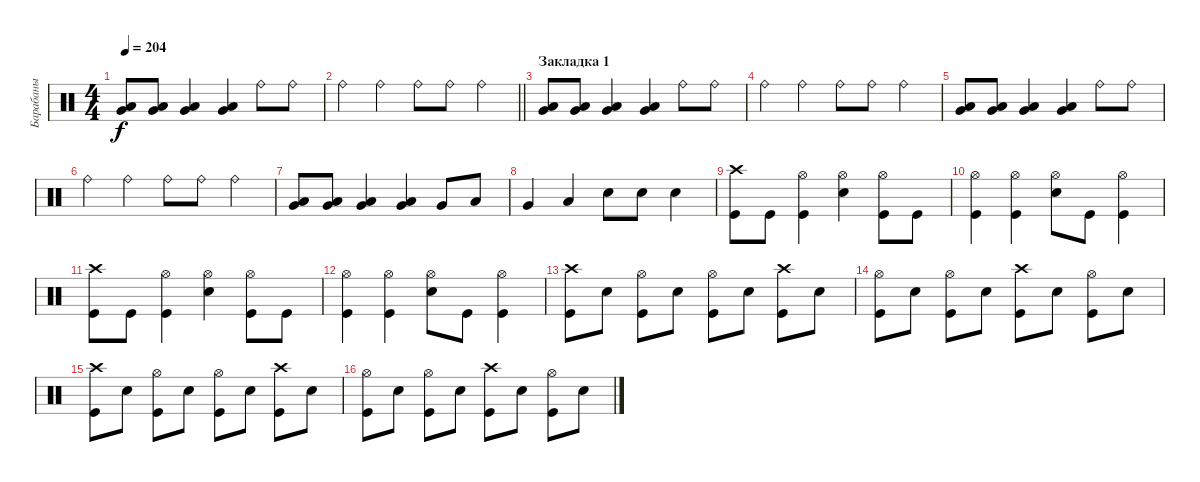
\track ("Барабаны" "Барабаны") {instrument percussion}
\staff {score}
\articulation defaults
\ts (4 4)
\tempo 204
\clef neutral
\ks c
("Very Low Tom (hit)" "Low Floor Tom (hit)").8{dy f} ("Very Low Tom (hit)" "Low Floor Tom (hit)").8 ("Low Floor Tom (hit)" "Very Low Tom (hit)").4 ("Low Floor Tom (hit)" "Very Low Tom (hit)").4 "Ride (bell)".8 "Ride (bell)".8 |
\barLineRight lightlight "Ride (bell)".4 "Ride (bell)".4 "Ride (bell)".8 "Ride (bell)".8 "Ride (bell)".4
|
\section ("" "Закладка 1")
("Very Low Tom (hit)" "Low Floor Tom (hit)").8 ("Very Low Tom (hit)" "Low Floor Tom (hit)").8 ("Low Floor Tom (hit)" "Very Low Tom (hit)").4 ("Low Floor Tom (hit)" "Very Low Tom (hit)").4 "Ride (bell)".8 "Ride (bell)".8 |
"Ride (bell)".4 "Ride (bell)".4 "Ride (bell)".8 "Ride (bell)".8 "Ride (bell)".4 |
("Very Low Tom (hit)" "Low Floor Tom (hit)").8 ("Very Low Tom (hit)" "Low Floor Tom (hit)").8 ("Low Floor Tom (hit)" "Very Low Tom (hit)").4 ("Low Floor Tom (hit)" "Very Low Tom (hit)").4 "Ride (bell)".8 "Ride (bell)".8 |
"Ride (bell)".4 "Ride (bell)".4 "Ride (bell)".8 "Ride (bell)".8 "Ride (bell)".4 |
("Very Low Tom (hit)" "Low Floor Tom (hit)").8 ("Very Low Tom (hit)" "Low Floor Tom (hit)").8 ("Low Floor Tom (hit)" "Very Low Tom (hit)").4 ("Low Floor Tom (hit)" "Very Low Tom (hit)").4 "Very Low Tom (hit)".8 "Low Floor Tom (hit)".8 |
"Very Low Tom (hit)".4 "Low Floor Tom (hit)".4 "Electric Snare (hit)".8 "Electric Snare (hit)".8 "Electric Snare (hit)".4 |
("Crash high (hit)" "Kick (hit)").8 "Kick (hit)".8 ("Hi-Hat (open)" "Kick (hit)").4 ("Hi-Hat (open)" "Electric Snare (hit)").4 ("Hi-Hat (open)" "Kick (hit)").8 "Kick (hit)".8 |
("Hi-Hat (open)" "Kick (hit)").4 ("Hi-Hat (open)" "Kick (hit)").4 ("Hi-Hat (open)" "Electric Snare (hit)").8 "Kick (hit)".8 ("Hi-Hat (open)" "Kick (hit)").4 |
("Crash high (hit)" "Kick (hit)").8 "Kick (hit)".8 ("Hi-Hat (open)" "Kick (hit)").4 ("Hi-Hat (open)" "Electric Snare (hit)").4 ("Hi-Hat (open)" "Kick (hit)").8 "Kick (hit)".8 |
("Hi-Hat (open)" "Kick (hit)").4 ("Hi-Hat (open)" "Kick (hit)").4 ("Hi-Hat (open)" "Electric Snare (hit)").8 "Kick (hit)".8 ("Hi-Hat (open)" "Kick (hit)").4 |
("Crash high (hit)" "Kick (hit)").8 "Electric Snare (hit)".8 ("Hi-Hat (open)" "Kick (hit)").8 "Electric Snare (hit)".8 ("Hi-Hat (open)" "Kick (hit)").8 "Electric Snare (hit)".8 ("Crash high (hit)" "Kick (hit)").8 "Electric Snare (hit)".8 |
("Hi-Hat (open)" "Kick (hit)").8 "Electric Snare (hit)".8 ("Hi-Hat (open)" "Kick (hit)").8 "Electric Snare (hit)".8 ("Crash high (hit)" "Kick (hit)").8 "Electric Snare (hit)".8 ("Hi-Hat (open)" "Kick (hit)").8 "Electric Snare (hit)".8 |
("Crash high (hit)" "Kick (hit)").8 "Electric Snare (hit)".8 ("Hi-Hat (open)" "Kick (hit)").8 "Electric Snare (hit)".8 ("Hi-Hat (open)" "Kick (hit)").8 "Electric Snare (hit)".8 ("Crash high (hit)" "Kick (hit)").8 "Electric Snare (hit)".8 |
("Hi-Hat (open)" "Kick (hit)").8 "Electric Snare (hit)".8 ("Hi-Hat (open)" "Kick (hit)").8 "Electric Snare (hit)".8 ("Crash high (hit)" "Kick (hit)").8 "Electric Snare (hit)".8 ("Hi-Hat (open)" "Kick (hit)").8 "Electric Snare (hit)".8
